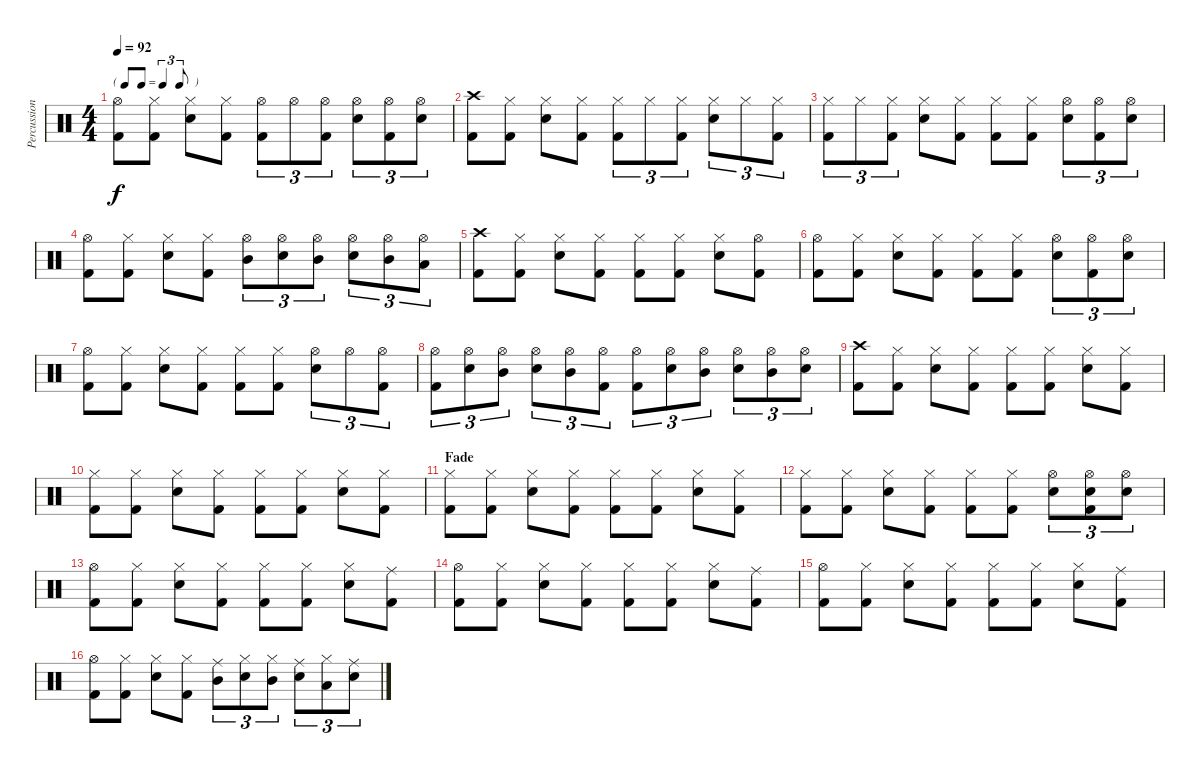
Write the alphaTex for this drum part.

\track ("Percussion" "Percussion") {instrument percussion}
\staff {score}
\articulation defaults
\ts (4 4)
\tf triplet8th
\tempo 92
\clef neutral
\ks c
("Hi-Hat (open)" "Kick (hit) 2").8{dy f} ("Hi-Hat (closed)" "Kick (hit) 2").8 ("Hi-Hat (closed)" "Electric Snare (hit)").8 ("Hi-Hat (closed)" "Kick (hit) 2").8 ("Hi-Hat (open)" "Kick (hit) 2").8{tu (3 2)} "Hi-Hat (open)".8{tu (3 2)} ("Hi-Hat (open)" "Kick (hit) 2").8{tu (3 2)} ("Hi-Hat (open)" "Electric Snare (hit)").8{tu (3 2)} ("Hi-Hat (open)" "Kick (hit) 2").8{tu (3 2)} ("Hi-Hat (open)" "Electric Snare (hit)").8{tu (3 2)} |
("Crash high (hit)" "Kick (hit) 2").8 ("Hi-Hat (closed)" "Kick (hit) 2").8 ("Hi-Hat (closed)" "Electric Snare (hit)").8 ("Hi-Hat (closed)" "Kick (hit) 2").8 ("Hi-Hat (closed)" "Kick (hit) 2").8{tu (3 2)} "Hi-Hat (closed)".8{tu (3 2)} ("Hi-Hat (closed)" "Kick (hit) 2").8{tu (3 2)} ("Hi-Hat (closed)" "Electric Snare (hit)").8{tu (3 2)} "Hi-Hat (closed)".8{tu (3 2)} ("Hi-Hat (closed)" "Kick (hit) 2").8{tu (3 2)} |
("Hi-Hat (closed)" "Kick (hit) 2").8{tu (3 2)} "Hi-Hat (closed)".8{tu (3 2)} ("Hi-Hat (closed)" "Kick (hit) 2").8{tu (3 2)} ("Hi-Hat (closed)" "Electric Snare (hit)").8 ("Hi-Hat (closed)" "Kick (hit) 2").8 ("Hi-Hat (closed)" "Kick (hit) 2").8 ("Hi-Hat (closed)" "Kick (hit) 2").8 ("Hi-Hat (open)" "Electric Snare (hit)").8{tu (3 2)} ("Hi-Hat (open)" "Kick (hit) 2").8{tu (3 2)} ("Hi-Hat (open)" "Electric Snare (hit)").8{tu (3 2)} |
("Hi-Hat (open)" "Kick (hit) 2").8 ("Hi-Hat (closed)" "Kick (hit) 2").8 ("Hi-Hat (closed)" "Electric Snare (hit)").8 ("Hi-Hat (closed)" "Kick (hit) 2").8 ("Hi-Hat (open)" "Mid Tom (hit)").8{tu (3 2)} ("Hi-Hat (open)" "Electric Snare (hit)").8{tu (3 2)} ("Hi-Hat (open)" "Mid Tom (hit)").8{tu (3 2)} ("Hi-Hat (open)" "Electric Snare (hit)").8{tu (3 2)} ("Hi-Hat (open)" "Mid Tom (hit)").8{tu (3 2)} ("Hi-Hat (open)" "Low Tom (hit)").8{tu (3 2)} |
("Crash high (hit)" "Kick (hit) 2").8 ("Hi-Hat (closed)" "Kick (hit) 2").8 ("Hi-Hat (closed)" "Electric Snare (hit)").8 ("Hi-Hat (closed)" "Kick (hit) 2").8 ("Hi-Hat (closed)" "Kick (hit) 2").8 ("Hi-Hat (closed)" "Kick (hit) 2").8 ("Hi-Hat (closed)" "Electric Snare (hit)").8 ("Hi-Hat (open)" "Kick (hit) 2").8 |
("Hi-Hat (open)" "Kick (hit) 2").8 ("Hi-Hat (closed)" "Kick (hit) 2").8 ("Hi-Hat (closed)" "Electric Snare (hit)").8 ("Hi-Hat (closed)" "Kick (hit) 2").8 ("Hi-Hat (closed)" "Kick (hit) 2").8 ("Hi-Hat (closed)" "Kick (hit) 2").8 ("Hi-Hat (open)" "Electric Snare (hit)").8{tu (3 2)} ("Hi-Hat (open)" "Kick (hit) 2").8{tu (3 2)} ("Hi-Hat (open)" "Electric Snare (hit)").8{tu (3 2)} |
("Hi-Hat (open)" "Kick (hit) 2").8 ("Hi-Hat (closed)" "Kick (hit) 2").8 ("Hi-Hat (closed)" "Electric Snare (hit)").8 ("Hi-Hat (closed)" "Kick (hit) 2").8 ("Hi-Hat (closed)" "Kick (hit) 2").8 ("Hi-Hat (closed)" "Kick (hit) 2").8 ("Hi-Hat (open)" "Electric Snare (hit)").8{tu (3 2)} "Hi-Hat (open)".8{tu (3 2)} ("Hi-Hat (open)" "Kick (hit) 2").8{tu (3 2)} |
("Hi-Hat (open)" "Kick (hit) 2").8{tu (3 2)} ("Hi-Hat (open)" "Electric Snare (hit)").8{tu (3 2)} ("Hi-Hat (open)" "Mid Tom (hit)").8{tu (3 2)} ("Hi-Hat (open)" "Electric Snare (hit)").8{tu (3 2)} ("Hi-Hat (open)" "Mid Tom (hit)").8{tu (3 2)} ("Hi-Hat (open)" "Kick (hit) 2").8{tu (3 2)} ("Hi-Hat (open)" "Kick (hit) 2").8{tu (3 2)} ("Hi-Hat (open)" "Electric Snare (hit)").8{tu (3 2)} ("Hi-Hat (open)" "Mid Tom (hit)").8{tu (3 2)} ("Hi-Hat (open)" "Electric Snare (hit)").8{tu (3 2)} ("Hi-Hat (open)" "Mid Tom (hit)").8{tu (3 2)} ("Hi-Hat (open)" "Electric Snare (hit)").8{tu (3 2)} |
("Crash high (hit)" "Kick (hit) 2").8 ("Hi-Hat (closed)" "Kick (hit) 2").8 ("Hi-Hat (closed)" "Electric Snare (hit)").8 ("Hi-Hat (closed)" "Kick (hit) 2").8 ("Hi-Hat (closed)" "Kick (hit) 2").8 ("Hi-Hat (closed)" "Kick (hit) 2").8 ("Hi-Hat (closed)" "Electric Snare (hit)").8 ("Hi-Hat (closed)" "Kick (hit) 2").8 |
("Hi-Hat (closed)" "Kick (hit) 2").8 ("Hi-Hat (closed)" "Kick (hit) 2").8 ("Hi-Hat (closed)" "Electric Snare (hit)").8 ("Hi-Hat (closed)" "Kick (hit) 2").8 ("Hi-Hat (closed)" "Kick (hit) 2").8 ("Hi-Hat (closed)" "Kick (hit) 2").8 ("Hi-Hat (closed)" "Electric Snare (hit)").8 ("Hi-Hat (closed)" "Kick (hit) 2").8 |
\section ("" "Fade")
("Hi-Hat (closed)" "Kick (hit) 2").8 ("Hi-Hat (closed)" "Kick (hit) 2").8 ("Hi-Hat (closed)" "Electric Snare (hit)").8 ("Hi-Hat (closed)" "Kick (hit) 2").8 ("Hi-Hat (closed)" "Kick (hit) 2").8 ("Hi-Hat (closed)" "Kick (hit) 2").8 ("Hi-Hat (closed)" "Electric Snare (hit)").8 ("Hi-Hat (closed)" "Kick (hit) 2").8 |
("Hi-Hat (closed)" "Kick (hit) 2").8 ("Hi-Hat (closed)" "Kick (hit) 2").8 ("Hi-Hat (closed)" "Electric Snare (hit)").8 ("Hi-Hat (closed)" "Kick (hit) 2").8 ("Hi-Hat (closed)" "Kick (hit) 2").8 ("Hi-Hat (closed)" "Kick (hit) 2").8 ("Hi-Hat (open)" "Electric Snare (hit)").8{tu (3 2)} ("Hi-Hat (open)" "Electric Snare (hit)" "Kick (hit) 2").8{tu (3 2)} ("Hi-Hat (open)" "Electric Snare (hit)").8{tu (3 2)} |
("Hi-Hat (open)" "Kick (hit) 2").8 ("Hi-Hat (closed)" "Kick (hit) 2").8 ("Hi-Hat (closed)" "Electric Snare (hit)").8 ("Hi-Hat (closed)" "Kick (hit) 2").8 ("Hi-Hat (closed)" "Kick (hit) 2").8 ("Hi-Hat (closed)" "Kick (hit) 2").8 ("Hi-Hat (closed)" "Electric Snare (hit)").8 ("Ride (middle)" "Kick (hit) 2").8 |
("Hi-Hat (open)" "Kick (hit) 2").8 ("Hi-Hat (closed)" "Kick (hit) 2").8 ("Hi-Hat (closed)" "Electric Snare (hit)").8 ("Hi-Hat (closed)" "Kick (hit) 2").8 ("Hi-Hat (closed)" "Kick (hit) 2").8 ("Hi-Hat (closed)" "Kick (hit) 2").8 ("Hi-Hat (closed)" "Electric Snare (hit)").8 ("Ride (middle)" "Kick (hit) 2").8 |
("Hi-Hat (open)" "Kick (hit) 2").8 ("Hi-Hat (closed)" "Kick (hit) 2").8 ("Hi-Hat (closed)" "Electric Snare (hit)").8 ("Hi-Hat (closed)" "Kick (hit) 2").8 ("Hi-Hat (closed)" "Kick (hit) 2").8 ("Hi-Hat (closed)" "Kick (hit) 2").8 ("Hi-Hat (closed)" "Electric Snare (hit)").8 ("Ride (middle)" "Kick (hit) 2").8 |
("Hi-Hat (open)" "Kick (hit) 2").8 ("Hi-Hat (closed)" "Kick (hit) 2").8 ("Hi-Hat (closed)" "Electric Snare (hit)").8 ("Hi-Hat (closed)" "Kick (hit) 2").8 ("Ride (middle)" "Mid Tom (hit)").8{tu (3 2)} ("Hi-Hat (closed)" "Electric Snare (hit)").8{tu (3 2)} ("Hi-Hat (closed)" "Mid Tom (hit)").8{tu (3 2)} ("Ride (middle)" "Electric Snare (hit)").8{tu (3 2)} ("Hi-Hat (closed)" "Low Tom (hit)").8{tu (3 2)} ("Ride (middle)" "Electric Snare (hit)").8{tu (3 2)}
